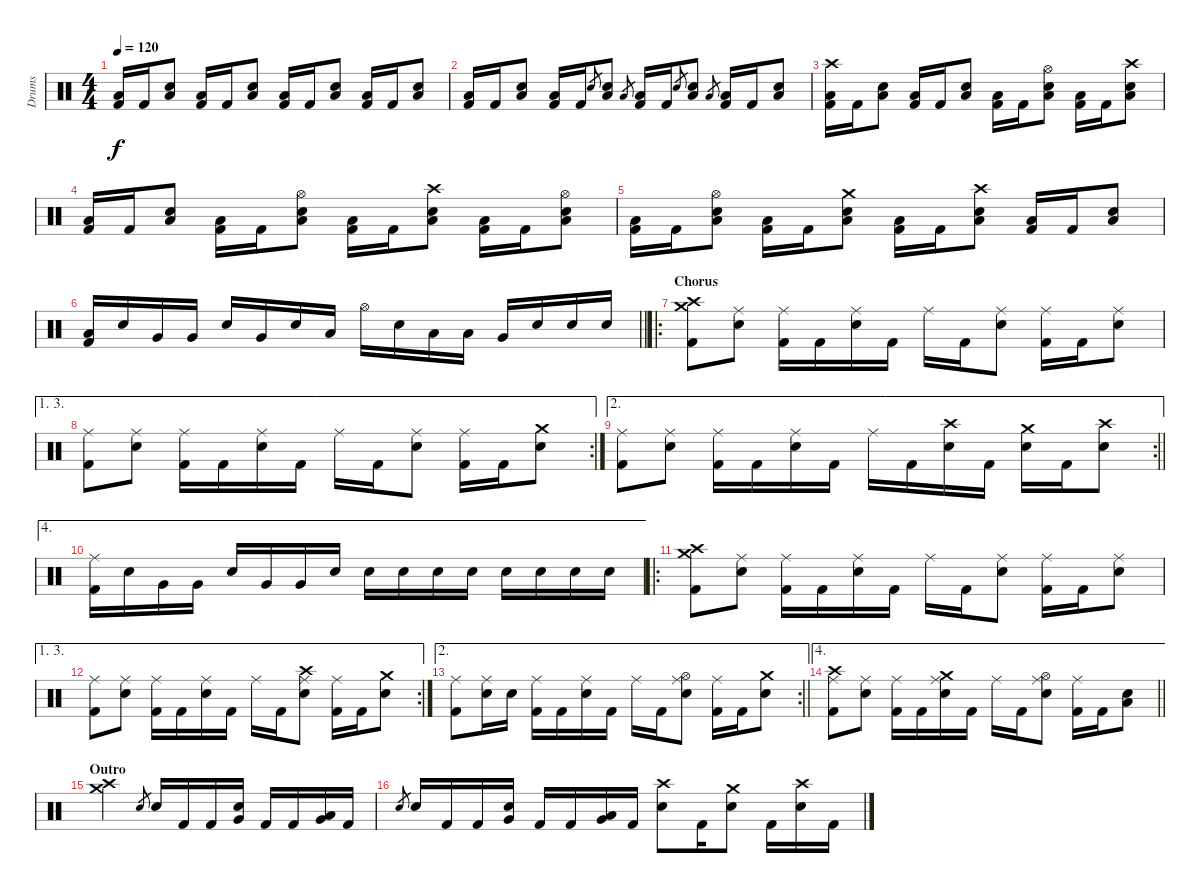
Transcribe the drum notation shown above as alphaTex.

\track ("Drums" "Drums") {instrument percussion}
\staff {score}
\articulation defaults
\ts (4 4)
\tempo 120
\clef neutral
\ks c
("Low Floor Tom (hit)" "Kick (hit) 2").16{dy f} "Kick (hit) 2".16 ("Low Floor Tom (hit)" "Snare (hit) 2").8 ("Low Floor Tom (hit)" "Kick (hit) 2").16 "Kick (hit) 2".16 ("Low Floor Tom (hit)" "Snare (hit) 2").8 ("Low Floor Tom (hit)" "Kick (hit) 2").16 "Kick (hit) 2".16 ("Low Floor Tom (hit)" "Snare (hit) 2").8 ("Low Floor Tom (hit)" "Kick (hit) 2").16 "Kick (hit) 2".16 ("Low Floor Tom (hit)" "Snare (hit) 2").8 |
("Low Floor Tom (hit)" "Kick (hit) 2").16 "Kick (hit) 2".16 ("Low Floor Tom (hit)" "Snare (hit) 2").8 ("Low Floor Tom (hit)" "Kick (hit) 2").16 "Kick (hit) 2".16 "Snare (hit) 2".8{gr} ("Low Floor Tom (hit)" "Snare (hit) 2").8 "Low Floor Tom (hit)".8{gr} ("Low Floor Tom (hit)" "Kick (hit) 2").16 "Kick (hit) 2".16 "Snare (hit) 2".8{gr} ("Low Floor Tom (hit)" "Snare (hit) 2").8 "Low Floor Tom (hit)".8{gr} ("Low Floor Tom (hit)" "Kick (hit) 2").16 "Kick (hit) 2".16 ("Low Floor Tom (hit)" "Snare (hit) 2").8 |
("Crash high (hit)" "Low Floor Tom (hit)" "Kick (hit) 2").16 "Kick (hit) 2".16 ("Low Floor Tom (hit)" "Snare (hit) 2").8 ("Low Floor Tom (hit)" "Kick (hit) 2").16 "Kick (hit) 2".16 ("Low Floor Tom (hit)" "Snare (hit) 2").8 ("Low Floor Tom (hit)" "Kick (hit) 2").16 "Kick (hit) 2".16 ("Hi-Hat (open)" "Low Floor Tom (hit)" "Snare (hit) 2").8 ("Low Floor Tom (hit)" "Kick (hit) 2").16 "Kick (hit) 2".16 ("Crash high (hit)" "Low Floor Tom (hit)" "Snare (hit) 2").8 |
("Low Floor Tom (hit)" "Kick (hit) 2").16 "Kick (hit) 2".16 ("Low Floor Tom (hit)" "Snare (hit) 2").8 ("Low Floor Tom (hit)" "Kick (hit) 2").16 "Kick (hit) 2".16 ("Hi-Hat (open)" "Low Floor Tom (hit)" "Snare (hit) 2").8 ("Low Floor Tom (hit)" "Kick (hit) 2").16 "Kick (hit) 2".16 ("Crash high (hit)" "Low Floor Tom (hit)" "Snare (hit) 2").8 ("Low Floor Tom (hit)" "Kick (hit) 2").16 "Kick (hit) 2".16 ("Hi-Hat (open)" "Low Floor Tom (hit)" "Snare (hit) 2").8 |
("Low Floor Tom (hit)" "Kick (hit) 2").16 "Kick (hit) 2".16 ("Hi-Hat (open)" "Low Floor Tom (hit)" "Snare (hit) 2").8 ("Low Floor Tom (hit)" "Kick (hit) 2").16 "Kick (hit) 2".16 ("Crash medium (hit)" "Low Floor Tom (hit)" "Snare (hit) 2").8 ("Low Floor Tom (hit)" "Kick (hit) 2").16 "Kick (hit) 2".16 ("Crash high (hit)" "Low Floor Tom (hit)" "Snare (hit) 2").8 ("Low Floor Tom (hit)" "Kick (hit) 2").16 "Kick (hit) 2".16 ("Low Floor Tom (hit)" "Snare (hit) 2").8 |
\barLineRight lightlight
("Low Floor Tom (hit)" "Kick (hit) 2").16 "Snare (hit) 2".16 "Very Low Tom (hit)".16 "Very Low Tom (hit)".16 "Snare (hit) 2".16 "Very Low Tom (hit)".16 "Snare (hit) 2".16 "Low Floor Tom (hit)".16 "Hi-Hat (open)".16 "Snare (hit) 2".16 "Low Floor Tom (hit)".16 "Low Floor Tom (hit)".16 "Very Low Tom (hit)".16 "Snare (hit) 2".16 "Snare (hit) 2".16 "Snare (hit) 2".16 |
\ro
\section ("" "Chorus")
("Crash high (hit)" "Crash medium (hit)" "Kick (hit) 2").8 ("Ride (middle)" "Snare (hit) 2").8 ("Ride (middle)" "Kick (hit) 2").16 "Kick (hit) 2".16 ("Ride (middle)" "Snare (hit) 2").16 "Kick (hit) 2".16 "Ride (middle)".16 "Kick (hit) 2".16 ("Ride (middle)" "Snare (hit) 2").8 ("Ride (middle)" "Kick (hit) 2").16 "Kick (hit) 2".16 ("Ride (middle)" "Snare (hit) 2").8 |
\ae (1 3)
\rc 2
("Ride (middle)" "Kick (hit) 2").8 ("Ride (middle)" "Snare (hit) 2").8 ("Ride (middle)" "Kick (hit) 2").16 "Kick (hit) 2".16 ("Ride (middle)" "Snare (hit) 2").16 "Kick (hit) 2".16 "Ride (middle)".16 "Kick (hit) 2".16 ("Ride (middle)" "Snare (hit) 2").8 ("Ride (middle)" "Kick (hit) 2").16 "Kick (hit) 2".16 ("Crash medium (hit)" "Snare (hit) 2").8 |
\ae 2
\rc 2
\barLineRight lightlight
("Ride (middle)" "Kick (hit) 2").8 ("Ride (middle)" "Snare (hit) 2").8 ("Ride (middle)" "Kick (hit) 2").16 "Kick (hit) 2".16 ("Ride (middle)" "Snare (hit) 2").16 "Kick (hit) 2".16 "Ride (middle)".16 "Kick (hit) 2".16 ("Crash high (hit)" "Snare (hit) 2").16 "Kick (hit) 2".16 ("Crash medium (hit)" "Snare (hit) 2").16 "Kick (hit) 2".16 ("Crash high (hit)" "Snare (hit) 2").8 |
\ae 4
("Ride (middle)" "Kick (hit) 2").16 "Snare (hit) 2".16 "Very Low Tom (hit)".16 "Very Low Tom (hit)".16 "Snare (hit) 2".16 "Very Low Tom (hit)".16 "Very Low Tom (hit)".16 "Snare (hit) 2".16 "Snare (hit) 2".16 "Snare (hit) 2".16 "Snare (hit) 2".16 "Snare (hit) 2".16 "Snare (hit) 2".16 "Snare (hit) 2".16 "Snare (hit) 2".16 "Snare (hit) 2".16 |
\ro
("Crash high (hit)" "Crash medium (hit)" "Kick (hit) 2").8 ("Ride (middle)" "Snare (hit) 2").8 ("Ride (middle)" "Kick (hit) 2").16 "Kick (hit) 2".16 ("Ride (middle)" "Snare (hit) 2").16 "Kick (hit) 2".16 "Ride (middle)".16 "Kick (hit) 2".16 ("Ride (middle)" "Snare (hit) 2").8 ("Ride (middle)" "Kick (hit) 2").16 "Kick (hit) 2".16 ("Ride (middle)" "Snare (hit) 2").8 |
\ae (1 3)
\rc 2
("Ride (middle)" "Kick (hit) 2").8 ("Ride (middle)" "Snare (hit) 2").8 ("Ride (middle)" "Kick (hit) 2").16 "Kick (hit) 2".16 ("Ride (middle)" "Snare (hit) 2").16 "Kick (hit) 2".16 "Ride (middle)".16 "Kick (hit) 2".16 ("Crash high (hit)" "Ride (middle)" "Snare (hit) 2").8 ("Ride (middle)" "Kick (hit) 2").16 "Kick (hit) 2".16 ("Crash medium (hit)" "Snare (hit) 2").8 |
\ae 2
\rc 2
\barLineRight lightlight
("Ride (middle)" "Kick (hit) 2").8 ("Ride (middle)" "Snare (hit) 2").16 "Snare (hit) 2".16 ("Ride (middle)" "Kick (hit) 2").16 "Kick (hit) 2".16 ("Ride (middle)" "Snare (hit) 2").16 "Kick (hit) 2".16 "Ride (middle)".16 "Kick (hit) 2".16 ("Hi-Hat (open)" "Ride (middle)" "Snare (hit) 2").8 ("Ride (middle)" "Kick (hit) 2").16 "Kick (hit) 2".16 ("Crash medium (hit)" "Snare (hit) 2").8 |
\ae 4
\barLineRight lightlight
("Crash high (hit)" "Ride (middle)" "Kick (hit) 2").8 ("Ride (middle)" "Snare (hit) 2").8 ("Ride (middle)" "Kick (hit) 2").16 "Kick (hit) 2".16 ("Crash medium (hit)" "Ride (middle)" "Snare (hit) 2").16 "Kick (hit) 2".16 "Ride (middle)".16 "Kick (hit) 2".16 ("Hi-Hat (open)" "Ride (middle)" "Snare (hit) 2").8 ("Ride (middle)" "Kick (hit) 2").16 "Kick (hit) 2".16 ("Low Floor Tom (hit)" "Snare (hit)").8 |
\section ("" "Outro")
("Crash high (hit)" "Crash medium (hit)").2 "Snare (hit) 2".8{gr} "Snare (hit) 2".16 "Kick (hit) 2".16 "Kick (hit) 2".16 ("Very Low Tom (hit)" "Snare (hit) 2").16 "Kick (hit) 2".16 "Kick (hit) 2".16 ("Very Low Tom (hit)" "Low Floor Tom (hit)").16 "Kick (hit) 2".16 |
"Snare (hit) 2".8{gr} "Snare (hit) 2".16 "Kick (hit) 2".16 "Kick (hit) 2".16 ("Very Low Tom (hit)" "Snare (hit) 2").16 "Kick (hit) 2".16 "Kick (hit) 2".16 ("Very Low Tom (hit)" "Low Floor Tom (hit)").16 "Kick (hit) 2".16 ("Crash high (hit)" "Snare (hit) 2").8 "Kick (hit) 2".16 ("Crash medium (hit)" "Snare (hit) 2").8 "Kick (hit) 2".16 ("Crash high (hit)" "Snare (hit) 2").16 "Kick (hit) 2".16
